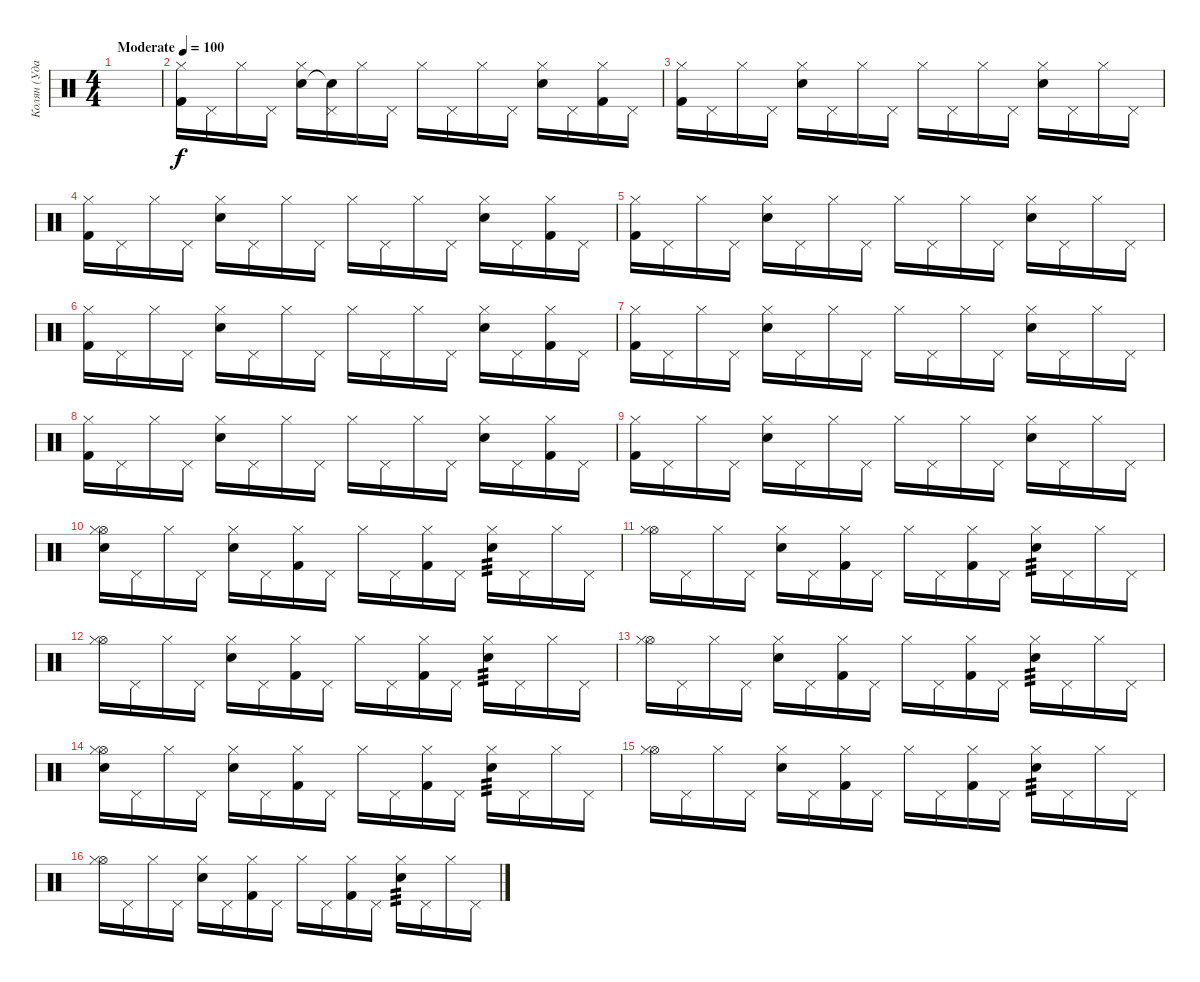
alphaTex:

\track ("Колян (Ударные)" "Колян (Уда") {instrument percussion}
\staff {score}
\articulation defaults
\ts (4 4)
\tempo (100 "Moderate")
\clef neutral
\ks c
|
("Kick (hit) 2" "Hi-Hat (closed)").16 "Pedal Hi-Hat (hit)".16 "Hi-Hat (closed)".16 "Pedal Hi-Hat (hit)".16 ("Electric Snare (hit)" "Hi-Hat (closed)").16 ("Snare (hit)"{t} "Pedal Hi-Hat (hit)").16 "Hi-Hat (closed)".16 "Pedal Hi-Hat (hit)".16 "Hi-Hat (closed)".16 "Pedal Hi-Hat (hit)".16 "Hi-Hat (closed)".16 "Pedal Hi-Hat (hit)".16 ("Electric Snare (hit)" "Hi-Hat (closed)").16 "Pedal Hi-Hat (hit)".16 ("Kick (hit) 2" "Hi-Hat (closed)").16 "Pedal Hi-Hat (hit)".16 |
("Kick (hit) 2" "Hi-Hat (closed)").16 "Pedal Hi-Hat (hit)".16 "Hi-Hat (closed)".16 "Pedal Hi-Hat (hit)".16 ("Electric Snare (hit)" "Hi-Hat (closed)").16 "Pedal Hi-Hat (hit)".16 "Hi-Hat (closed)".16 "Pedal Hi-Hat (hit)".16 "Hi-Hat (closed)".16 "Pedal Hi-Hat (hit)".16 "Hi-Hat (closed)".16 "Pedal Hi-Hat (hit)".16 ("Electric Snare (hit)" "Hi-Hat (closed)").16 "Pedal Hi-Hat (hit)".16 "Hi-Hat (closed)".16 "Pedal Hi-Hat (hit)".16 |
("Kick (hit) 2" "Hi-Hat (closed)").16 "Pedal Hi-Hat (hit)".16 "Hi-Hat (closed)".16 "Pedal Hi-Hat (hit)".16 ("Electric Snare (hit)" "Hi-Hat (closed)").16 "Pedal Hi-Hat (hit)".16 "Hi-Hat (closed)".16 "Pedal Hi-Hat (hit)".16 "Hi-Hat (closed)".16 "Pedal Hi-Hat (hit)".16 "Hi-Hat (closed)".16 "Pedal Hi-Hat (hit)".16 ("Electric Snare (hit)" "Hi-Hat (closed)").16 "Pedal Hi-Hat (hit)".16 ("Kick (hit) 2" "Hi-Hat (closed)").16 "Pedal Hi-Hat (hit)".16 |
("Kick (hit) 2" "Hi-Hat (closed)").16 "Pedal Hi-Hat (hit)".16 "Hi-Hat (closed)".16 "Pedal Hi-Hat (hit)".16 ("Electric Snare (hit)" "Hi-Hat (closed)").16 "Pedal Hi-Hat (hit)".16 "Hi-Hat (closed)".16 "Pedal Hi-Hat (hit)".16 "Hi-Hat (closed)".16 "Pedal Hi-Hat (hit)".16 "Hi-Hat (closed)".16 "Pedal Hi-Hat (hit)".16 ("Electric Snare (hit)" "Hi-Hat (closed)").16 "Pedal Hi-Hat (hit)".16 "Hi-Hat (closed)".16 "Pedal Hi-Hat (hit)".16 |
("Kick (hit) 2" "Hi-Hat (closed)").16 "Pedal Hi-Hat (hit)".16 "Hi-Hat (closed)".16 "Pedal Hi-Hat (hit)".16 ("Electric Snare (hit)" "Hi-Hat (closed)").16 "Pedal Hi-Hat (hit)".16 "Hi-Hat (closed)".16 "Pedal Hi-Hat (hit)".16 "Hi-Hat (closed)".16 "Pedal Hi-Hat (hit)".16 "Hi-Hat (closed)".16 "Pedal Hi-Hat (hit)".16 ("Electric Snare (hit)" "Hi-Hat (closed)").16 "Pedal Hi-Hat (hit)".16 ("Kick (hit) 2" "Hi-Hat (closed)").16 "Pedal Hi-Hat (hit)".16 |
("Kick (hit) 2" "Hi-Hat (closed)").16 "Pedal Hi-Hat (hit)".16 "Hi-Hat (closed)".16 "Pedal Hi-Hat (hit)".16 ("Electric Snare (hit)" "Hi-Hat (closed)").16 "Pedal Hi-Hat (hit)".16 "Hi-Hat (closed)".16 "Pedal Hi-Hat (hit)".16 "Hi-Hat (closed)".16 "Pedal Hi-Hat (hit)".16 "Hi-Hat (closed)".16 "Pedal Hi-Hat (hit)".16 ("Electric Snare (hit)" "Hi-Hat (closed)").16 "Pedal Hi-Hat (hit)".16 "Hi-Hat (closed)".16 "Pedal Hi-Hat (hit)".16 |
("Kick (hit) 2" "Hi-Hat (closed)").16 "Pedal Hi-Hat (hit)".16 "Hi-Hat (closed)".16 "Pedal Hi-Hat (hit)".16 ("Electric Snare (hit)" "Hi-Hat (closed)").16 "Pedal Hi-Hat (hit)".16 "Hi-Hat (closed)".16 "Pedal Hi-Hat (hit)".16 "Hi-Hat (closed)".16 "Pedal Hi-Hat (hit)".16 "Hi-Hat (closed)".16 "Pedal Hi-Hat (hit)".16 ("Electric Snare (hit)" "Hi-Hat (closed)").16 "Pedal Hi-Hat (hit)".16 ("Kick (hit) 2" "Hi-Hat (closed)").16 "Pedal Hi-Hat (hit)".16 |
("Kick (hit) 2" "Hi-Hat (closed)").16 "Pedal Hi-Hat (hit)".16 "Hi-Hat (closed)".16 "Pedal Hi-Hat (hit)".16 ("Electric Snare (hit)" "Hi-Hat (closed)").16 "Pedal Hi-Hat (hit)".16 "Hi-Hat (closed)".16 "Pedal Hi-Hat (hit)".16 "Hi-Hat (closed)".16 "Pedal Hi-Hat (hit)".16 "Hi-Hat (closed)".16 "Pedal Hi-Hat (hit)".16 ("Electric Snare (hit)" "Hi-Hat (closed)").16 "Pedal Hi-Hat (hit)".16 "Hi-Hat (closed)".16 "Pedal Hi-Hat (hit)".16 |
("Snare (hit) 2" "Hi-Hat (open)" "Hi-Hat (closed)").16{dy f} "Pedal Hi-Hat (hit)".16 "Hi-Hat (closed)".16 "Pedal Hi-Hat (hit)".16 ("Snare (hit) 2" "Hi-Hat (closed)").16 "Pedal Hi-Hat (hit)".16 ("Kick (hit) 2" "Hi-Hat (closed)").16 "Pedal Hi-Hat (hit)".16 "Hi-Hat (closed)".16 "Pedal Hi-Hat (hit)".16 ("Kick (hit) 2" "Hi-Hat (closed)").16 "Pedal Hi-Hat (hit)".16 ("Snare (hit) 2" "Hi-Hat (closed)").16{tp 3} "Pedal Hi-Hat (hit)".16 "Hi-Hat (closed)".16 "Pedal Hi-Hat (hit)".16 |
("Hi-Hat (open)" "Hi-Hat (closed)").16 "Pedal Hi-Hat (hit)".16 "Hi-Hat (closed)".16 "Pedal Hi-Hat (hit)".16 ("Snare (hit) 2" "Hi-Hat (closed)").16 "Pedal Hi-Hat (hit)".16 ("Kick (hit) 2" "Hi-Hat (closed)").16 "Pedal Hi-Hat (hit)".16 "Hi-Hat (closed)".16 "Pedal Hi-Hat (hit)".16 ("Kick (hit) 2" "Hi-Hat (closed)").16 "Pedal Hi-Hat (hit)".16 ("Snare (hit) 2" "Hi-Hat (closed)").16{tp 3} "Pedal Hi-Hat (hit)".16 "Hi-Hat (closed)".16 "Pedal Hi-Hat (hit)".16 |
("Hi-Hat (open)" "Hi-Hat (closed)").16 "Pedal Hi-Hat (hit)".16 "Hi-Hat (closed)".16 "Pedal Hi-Hat (hit)".16 ("Snare (hit) 2" "Hi-Hat (closed)").16 "Pedal Hi-Hat (hit)".16 ("Kick (hit) 2" "Hi-Hat (closed)").16 "Pedal Hi-Hat (hit)".16 "Hi-Hat (closed)".16 "Pedal Hi-Hat (hit)".16 ("Kick (hit) 2" "Hi-Hat (closed)").16 "Pedal Hi-Hat (hit)".16 ("Snare (hit) 2" "Hi-Hat (closed)").16{tp 3} "Pedal Hi-Hat (hit)".16 "Hi-Hat (closed)".16 "Pedal Hi-Hat (hit)".16 |
("Hi-Hat (open)" "Hi-Hat (closed)").16 "Pedal Hi-Hat (hit)".16 "Hi-Hat (closed)".16 "Pedal Hi-Hat (hit)".16 ("Snare (hit) 2" "Hi-Hat (closed)").16 "Pedal Hi-Hat (hit)".16 ("Kick (hit) 2" "Hi-Hat (closed)").16 "Pedal Hi-Hat (hit)".16 "Hi-Hat (closed)".16 "Pedal Hi-Hat (hit)".16 ("Kick (hit) 2" "Hi-Hat (closed)").16 "Pedal Hi-Hat (hit)".16 ("Snare (hit) 2" "Hi-Hat (closed)").16{tp 3} "Pedal Hi-Hat (hit)".16 "Hi-Hat (closed)".16 "Pedal Hi-Hat (hit)".16 |
("Snare (hit) 2" "Hi-Hat (open)" "Hi-Hat (closed)").16 "Pedal Hi-Hat (hit)".16 "Hi-Hat (closed)".16 "Pedal Hi-Hat (hit)".16 ("Snare (hit) 2" "Hi-Hat (closed)").16 "Pedal Hi-Hat (hit)".16 ("Kick (hit) 2" "Hi-Hat (closed)").16 "Pedal Hi-Hat (hit)".16 "Hi-Hat (closed)".16 "Pedal Hi-Hat (hit)".16 ("Kick (hit) 2" "Hi-Hat (closed)").16 "Pedal Hi-Hat (hit)".16 ("Snare (hit) 2" "Hi-Hat (closed)").16{tp 3} "Pedal Hi-Hat (hit)".16 "Hi-Hat (closed)".16 "Pedal Hi-Hat (hit)".16 |
("Hi-Hat (open)" "Hi-Hat (closed)").16 "Pedal Hi-Hat (hit)".16 "Hi-Hat (closed)".16 "Pedal Hi-Hat (hit)".16 ("Snare (hit) 2" "Hi-Hat (closed)").16 "Pedal Hi-Hat (hit)".16 ("Kick (hit) 2" "Hi-Hat (closed)").16 "Pedal Hi-Hat (hit)".16 "Hi-Hat (closed)".16 "Pedal Hi-Hat (hit)".16 ("Kick (hit) 2" "Hi-Hat (closed)").16 "Pedal Hi-Hat (hit)".16 ("Snare (hit) 2" "Hi-Hat (closed)").16{tp 3} "Pedal Hi-Hat (hit)".16 "Hi-Hat (closed)".16 "Pedal Hi-Hat (hit)".16 |
("Hi-Hat (open)" "Hi-Hat (closed)").16 "Pedal Hi-Hat (hit)".16 "Hi-Hat (closed)".16 "Pedal Hi-Hat (hit)".16 ("Snare (hit) 2" "Hi-Hat (closed)").16 "Pedal Hi-Hat (hit)".16 ("Kick (hit) 2" "Hi-Hat (closed)").16 "Pedal Hi-Hat (hit)".16 "Hi-Hat (closed)".16 "Pedal Hi-Hat (hit)".16 ("Kick (hit) 2" "Hi-Hat (closed)").16 "Pedal Hi-Hat (hit)".16 ("Snare (hit) 2" "Hi-Hat (closed)").16{tp 3} "Pedal Hi-Hat (hit)".16 "Hi-Hat (closed)".16 "Pedal Hi-Hat (hit)".16
